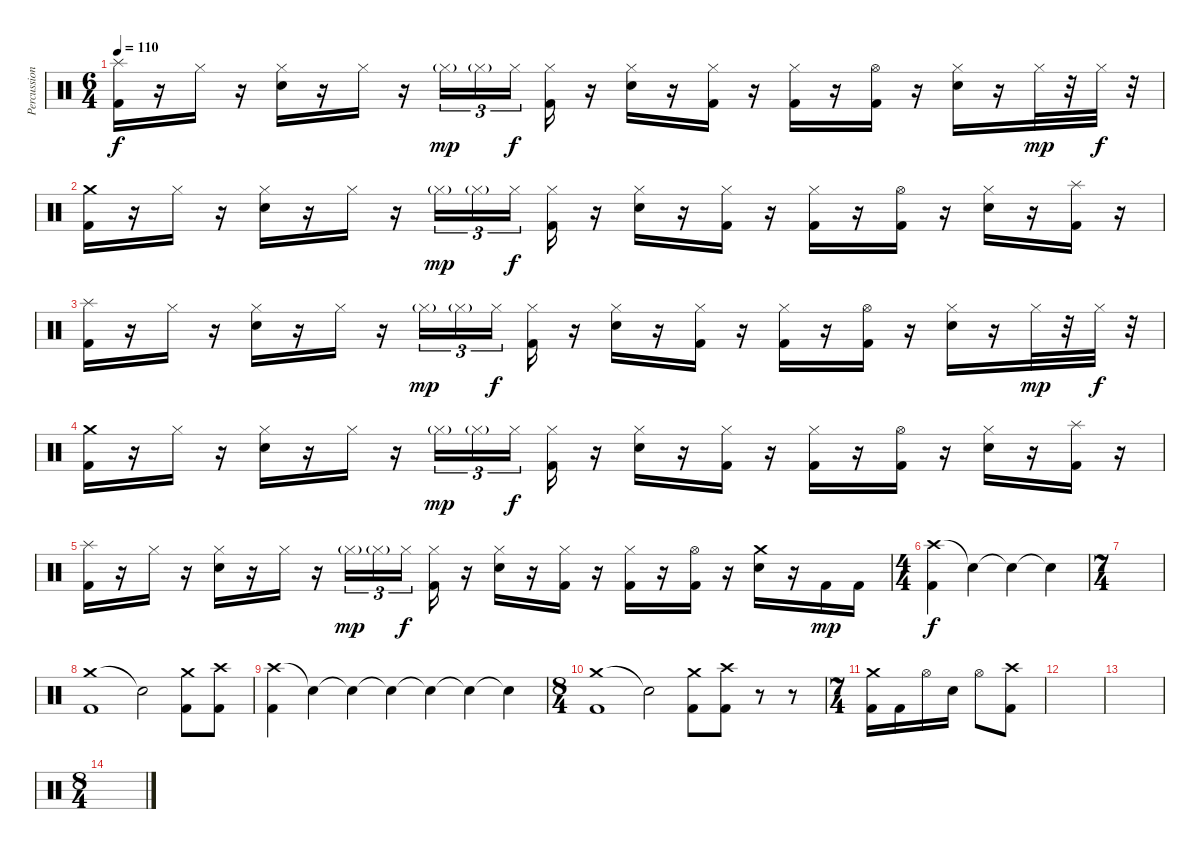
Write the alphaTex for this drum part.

\track ("Percussion" "Percussion") {instrument percussion}
\staff {score}
\articulation defaults
\ts (6 4)
\tempo 110
\clef neutral
\ks c
("Splash (hit)" "Kick (hit) 2").16{dy f} r.16 "Hi-Hat (closed)".16 r.16 ("Hi-Hat (closed)" "Electric Snare (hit)").16 r.16 "Hi-Hat (closed)".16 r.16 "Hi-Hat (closed)"{g}.16{tu (3 2) dy mp} "Hi-Hat (closed)"{g}.16{tu (3 2)} "Hi-Hat (closed)".16{tu (3 2) dy f beam splitsecondary} ("Hi-Hat (closed)" "Kick (hit) 2").16 r.16 ("Hi-Hat (closed)" "Electric Snare (hit)").16 r.16 ("Hi-Hat (closed)" "Kick (hit) 2").16 r.16 ("Hi-Hat (closed)" "Kick (hit) 2").16 r.16 ("Hi-Hat (open)" "Kick (hit) 2").16 r.16 ("Hi-Hat (closed)" "Electric Snare (hit)").16 r.16 "Hi-Hat (closed)".32{dy mp} r.32 "Hi-Hat (closed)".32{dy f} r.32 |
("Crash medium (hit)" "Kick (hit) 2").16 r.16 "Hi-Hat (closed)".16 r.16 ("Hi-Hat (closed)" "Electric Snare (hit)").16 r.16 "Hi-Hat (closed)".16 r.16 "Hi-Hat (closed)"{g}.16{tu (3 2) dy mp} "Hi-Hat (closed)"{g}.16{tu (3 2)} "Hi-Hat (closed)".16{tu (3 2) dy f beam splitsecondary} ("Hi-Hat (closed)" "Kick (hit) 2").16 r.16 ("Hi-Hat (closed)" "Electric Snare (hit)").16 r.16 ("Hi-Hat (closed)" "Kick (hit) 2").16 r.16 ("Hi-Hat (closed)" "Kick (hit) 2").16 r.16 ("Hi-Hat (open)" "Kick (hit) 2").16 r.16 ("Hi-Hat (closed)" "Electric Snare (hit)").16 r.16 ("Splash (hit)" "Kick (hit) 2").16 r.16 |
("Splash (hit)" "Kick (hit) 2").16 r.16 "Hi-Hat (closed)".16 r.16 ("Hi-Hat (closed)" "Electric Snare (hit)").16 r.16 "Hi-Hat (closed)".16 r.16 "Hi-Hat (closed)"{g}.16{tu (3 2) dy mp} "Hi-Hat (closed)"{g}.16{tu (3 2)} "Hi-Hat (closed)".16{tu (3 2) dy f beam splitsecondary} ("Hi-Hat (closed)" "Kick (hit) 2").16 r.16 ("Hi-Hat (closed)" "Electric Snare (hit)").16 r.16 ("Hi-Hat (closed)" "Kick (hit) 2").16 r.16 ("Hi-Hat (closed)" "Kick (hit) 2").16 r.16 ("Hi-Hat (open)" "Kick (hit) 2").16 r.16 ("Hi-Hat (closed)" "Electric Snare (hit)").16 r.16 "Hi-Hat (closed)".32{dy mp} r.32 "Hi-Hat (closed)".32{dy f} r.32 |
("Crash medium (hit)" "Kick (hit) 2").16 r.16 "Hi-Hat (closed)".16 r.16 ("Hi-Hat (closed)" "Electric Snare (hit)").16 r.16 "Hi-Hat (closed)".16 r.16 "Hi-Hat (closed)"{g}.16{tu (3 2) dy mp} "Hi-Hat (closed)"{g}.16{tu (3 2)} "Hi-Hat (closed)".16{tu (3 2) dy f beam splitsecondary} ("Hi-Hat (closed)" "Kick (hit) 2").16 r.16 ("Hi-Hat (closed)" "Electric Snare (hit)").16 r.16 ("Hi-Hat (closed)" "Kick (hit) 2").16 r.16 ("Hi-Hat (closed)" "Kick (hit) 2").16 r.16 ("Hi-Hat (open)" "Kick (hit) 2").16 r.16 ("Hi-Hat (closed)" "Electric Snare (hit)").16 r.16 ("Splash (hit)" "Kick (hit) 2").16 r.16 |
("Splash (hit)" "Kick (hit) 2").16 r.16 "Hi-Hat (closed)".16 r.16 ("Hi-Hat (closed)" "Electric Snare (hit)").16 r.16 "Hi-Hat (closed)".16 r.16 "Hi-Hat (closed)"{g}.16{tu (3 2) dy mp} "Hi-Hat (closed)"{g}.16{tu (3 2)} "Hi-Hat (closed)".16{tu (3 2) dy f beam splitsecondary} ("Hi-Hat (closed)" "Kick (hit) 2").16 r.16 ("Hi-Hat (closed)" "Electric Snare (hit)").16 r.16 ("Hi-Hat (closed)" "Kick (hit) 2").16 r.16 ("Hi-Hat (closed)" "Kick (hit) 2").16 r.16 ("Hi-Hat (open)" "Kick (hit) 2").16 r.16 ("Crash medium (hit)" "Electric Snare (hit)").16 r.16 "Kick (hit) 2".16{dy mp} "Kick (hit) 2".16 |
\ts (4 4)
("Crash high (hit)" "Kick (hit) 2").4{dy f} "Snare (hit)"{t}.4 "Snare (hit)"{t}.4 "Snare (hit)"{t}.4 |
\ts (7 4)
|
("Crash medium (hit)" "Kick (hit) 2").1 "Snare (hit)"{t}.2 ("Crash medium (hit)" "Kick (hit) 2").8 ("Crash high (hit)" "Kick (hit) 2").8 |
("Crash high (hit)" "Kick (hit) 2").4 "Snare (hit)"{t}.4 "Snare (hit)"{t}.4 "Snare (hit)"{t}.4 "Snare (hit)"{t}.4 "Snare (hit)"{t}.4 "Snare (hit)"{t}.4 |
\ts (8 4)
("Crash medium (hit)" "Kick (hit) 2").1 "Snare (hit)"{t}.2 ("Crash medium (hit)" "Kick (hit) 2").8 ("Crash high (hit)" "Kick (hit) 2").8 r.8 r.8 |
\ts (7 4)
("Crash medium (hit)" "Kick (hit) 2").16 "Kick (hit) 2".16 "Hi-Hat (open)".16 "Electric Snare (hit)".16 "Hi-Hat (open)".8 ("Crash high (hit)" "Kick (hit) 2").8 |
|
|
\ts (8 4)
